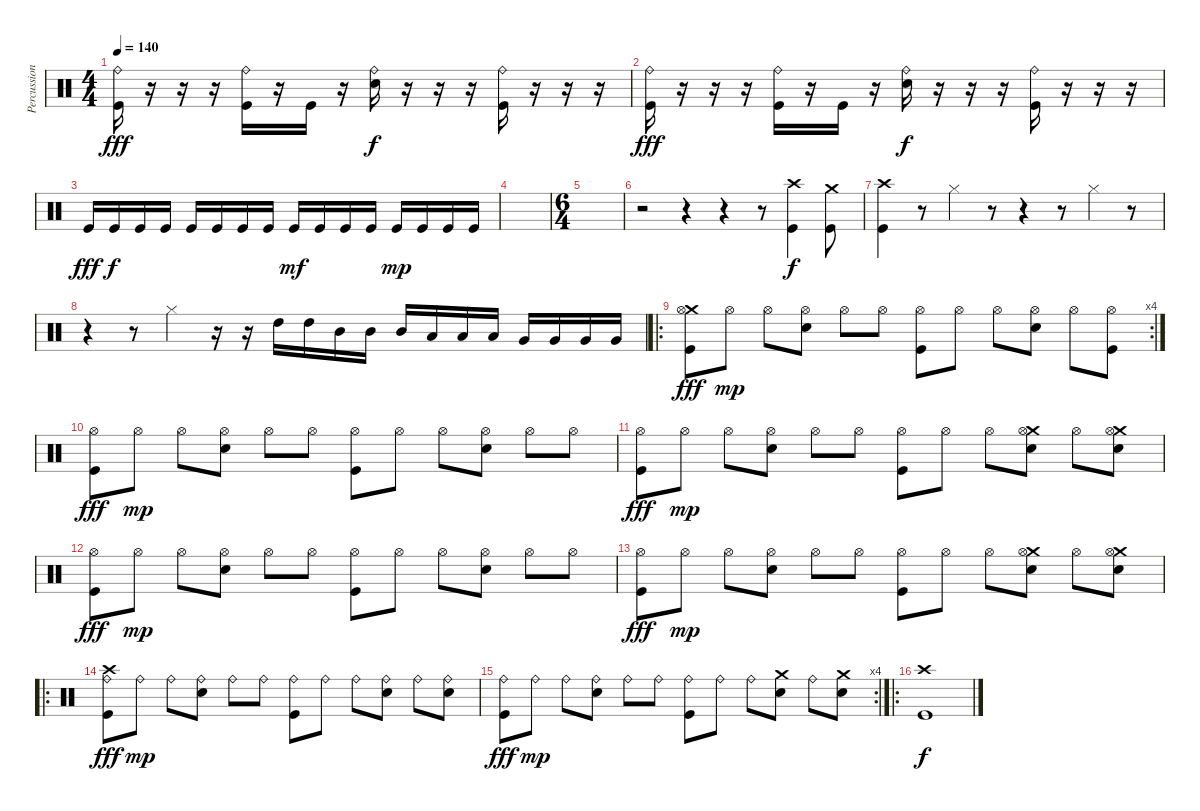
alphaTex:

\track ("Percussion" "Percussion") {instrument percussion}
\staff {score}
\articulation defaults
\ts (4 4)
\tempo 140
\clef neutral
\ks c
("Ride (bell)" "Kick (hit)").16{dy fff} r.16 r.16 r.16 ("Ride (bell)" "Kick (hit)").16 r.16 "Kick (hit)".16 r.16 ("Ride (bell)" "Snare (hit) 2").16{dy f} r.16 r.16 r.16 ("Ride (bell)" "Kick (hit)").16 r.16 r.16 r.16 |
("Ride (bell)" "Kick (hit)").16{dy fff} r.16 r.16 r.16 ("Ride (bell)" "Kick (hit)").16 r.16 "Kick (hit)".16 r.16 ("Ride (bell)" "Snare (hit) 2").16{dy f} r.16 r.16 r.16 ("Ride (bell)" "Kick (hit)").16 r.16 r.16 r.16 |
"Kick (hit)".16{dy fff} "Kick (hit)".16{dy f} "Kick (hit)".16 "Kick (hit)".16 "Kick (hit)".16 "Kick (hit)".16 "Kick (hit)".16 "Kick (hit)".16 "Kick (hit)".16{dy mf} "Kick (hit)".16 "Kick (hit)".16 "Kick (hit)".16 "Kick (hit)".16{dy mp} "Kick (hit)".16 "Kick (hit)".16 "Kick (hit)".16 |
|
\ts (6 4)
|
r.2 r.4 r.4 r.8 ("Crash high (hit)" "Kick (hit)").4{dy f} ("Crash medium (hit)" "Kick (hit)").8 |
("Crash high (hit)" "Kick (hit)").4 r.8 "Hi-Hat (closed)".4 r.8 r.4 r.8 "Hi-Hat (closed)".4 r.8 |
r.4 r.8 "Hi-Hat (closed)".4 r.16 r.16 "High Tom (hit)".16 "High Tom (hit)".16 "Mid Tom (hit)".16 "Mid Tom (hit)".16 "Mid Tom (hit)".16 "Low Tom (hit)".16 "Low Tom (hit)".16 "Low Tom (hit)".16 "Very Low Tom (hit)".16 "Very Low Tom (hit)".16 "Very Low Tom (hit)".16 "Very Low Tom (hit)".16 |
\ro
\rc 4
("Crash medium (hit)" "Hi-Hat (open)" "Kick (hit)").8{dy fff} "Hi-Hat (open)".8{dy mp} "Hi-Hat (open)".8 ("Hi-Hat (open)" "Snare (hit) 2").8 "Hi-Hat (open)".8 "Hi-Hat (open)".8 ("Hi-Hat (open)" "Kick (hit)").8 "Hi-Hat (open)".8 "Hi-Hat (open)".8 ("Hi-Hat (open)" "Snare (hit) 2").8 "Hi-Hat (open)".8 ("Hi-Hat (open)" "Kick (hit)").8 |
("Hi-Hat (open)" "Kick (hit)").8{dy fff} "Hi-Hat (open)".8{dy mp} "Hi-Hat (open)".8 ("Hi-Hat (open)" "Snare (hit) 2").8 "Hi-Hat (open)".8 "Hi-Hat (open)".8 ("Hi-Hat (open)" "Kick (hit)").8 "Hi-Hat (open)".8 "Hi-Hat (open)".8 ("Hi-Hat (open)" "Snare (hit) 2").8 "Hi-Hat (open)".8 "Hi-Hat (open)".8 |
("Hi-Hat (open)" "Kick (hit)").8{dy fff} "Hi-Hat (open)".8{dy mp} "Hi-Hat (open)".8 ("Hi-Hat (open)" "Snare (hit) 2").8 "Hi-Hat (open)".8 "Hi-Hat (open)".8 ("Hi-Hat (open)" "Kick (hit)").8 "Hi-Hat (open)".8 "Hi-Hat (open)".8 ("Crash medium (hit)" "Hi-Hat (open)" "Snare (hit) 2").8 "Hi-Hat (open)".8 ("Crash medium (hit)" "Hi-Hat (open)" "Snare (hit) 2").8 |
("Hi-Hat (open)" "Kick (hit)").8{dy fff} "Hi-Hat (open)".8{dy mp} "Hi-Hat (open)".8 ("Hi-Hat (open)" "Snare (hit) 2").8 "Hi-Hat (open)".8 "Hi-Hat (open)".8 ("Hi-Hat (open)" "Kick (hit)").8 "Hi-Hat (open)".8 "Hi-Hat (open)".8 ("Hi-Hat (open)" "Snare (hit) 2").8 "Hi-Hat (open)".8 "Hi-Hat (open)".8 |
("Hi-Hat (open)" "Kick (hit)").8{dy fff} "Hi-Hat (open)".8{dy mp} "Hi-Hat (open)".8 ("Hi-Hat (open)" "Snare (hit) 2").8 "Hi-Hat (open)".8 "Hi-Hat (open)".8 ("Hi-Hat (open)" "Kick (hit)").8 "Hi-Hat (open)".8 "Hi-Hat (open)".8 ("Crash medium (hit)" "Hi-Hat (open)" "Snare (hit) 2").8 "Hi-Hat (open)".8 ("Crash medium (hit)" "Hi-Hat (open)" "Snare (hit) 2").8 |
\ro
("Crash high (hit)" "Ride (bell)" "Kick (hit)").8{dy fff} "Ride (bell)".8{dy mp} "Ride (bell)".8 ("Ride (bell)" "Snare (hit) 2").8 "Ride (bell)".8 "Ride (bell)".8 ("Ride (bell)" "Kick (hit)").8 "Ride (bell)".8 "Ride (bell)".8 ("Ride (bell)" "Snare (hit) 2").8 "Ride (bell)".8 ("Ride (bell)" "Snare (hit) 2").8 |
\rc 4
("Ride (bell)" "Kick (hit)").8{dy fff} "Ride (bell)".8{dy mp} "Ride (bell)".8 ("Ride (bell)" "Snare (hit) 2").8 "Ride (bell)".8 "Ride (bell)".8 ("Ride (bell)" "Kick (hit)").8 "Ride (bell)".8 "Ride (bell)".8 ("Crash medium (hit)" "Snare (hit) 2").8 "Ride (bell)".8 ("Crash medium (hit)" "Snare (hit) 2").8 |
\ro
("Crash high (hit)" "Kick (hit)").1{dy f}
